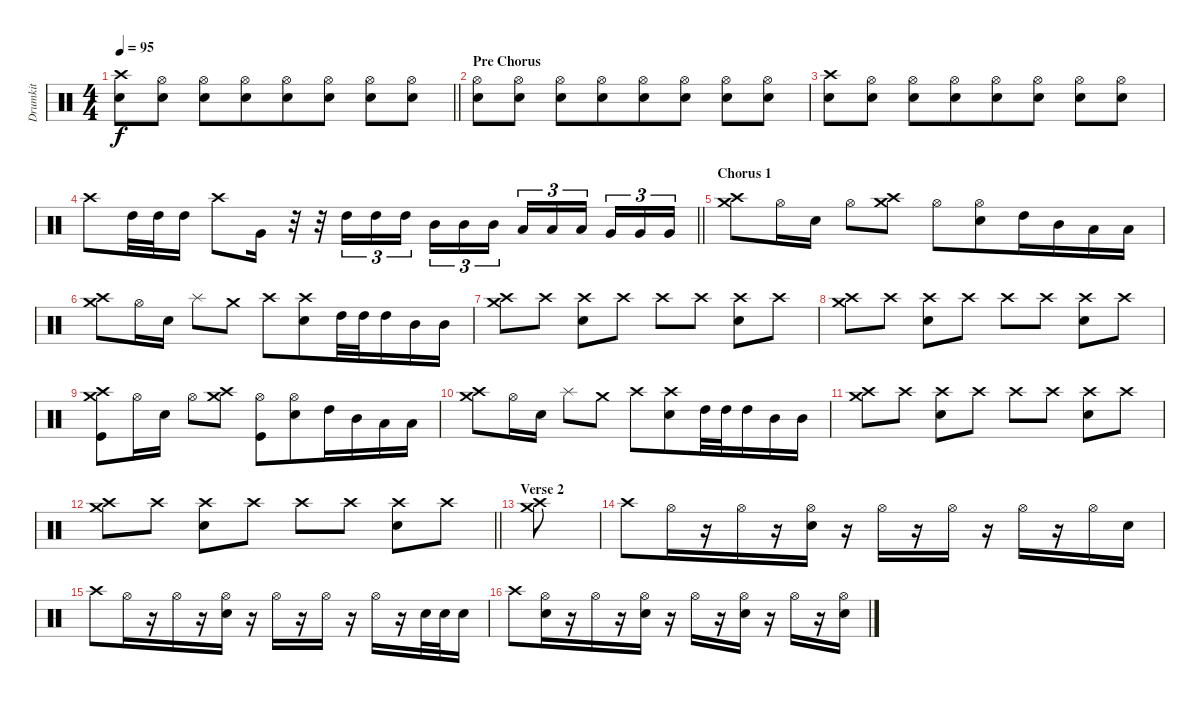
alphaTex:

\track ("Drumkit" "Drumkit") {instrument percussion}
\staff {score}
\articulation defaults
\ts (4 4)
\tempo 95
\clef neutral
\barLineRight lightlight
\ks c
("Crash high (hit)" "Electric Snare (hit)").8{dy f} ("Hi-Hat (open)" "Electric Snare (hit)").8 ("Hi-Hat (open)" "Electric Snare (hit)").8{beam merge} ("Hi-Hat (open)" "Electric Snare (hit)").8{beam merge} ("Hi-Hat (open)" "Electric Snare (hit)").8 ("Hi-Hat (open)" "Electric Snare (hit)").8 ("Hi-Hat (open)" "Electric Snare (hit)").8 ("Hi-Hat (open)" "Electric Snare (hit)").8 |
\section ("" "Pre Chorus")
("Hi-Hat (open)" "Electric Snare (hit)").8 ("Hi-Hat (open)" "Electric Snare (hit)").8 ("Hi-Hat (open)" "Electric Snare (hit)").8{beam merge} ("Hi-Hat (open)" "Electric Snare (hit)").8{beam merge} ("Hi-Hat (open)" "Electric Snare (hit)").8 ("Hi-Hat (open)" "Electric Snare (hit)").8 ("Hi-Hat (open)" "Electric Snare (hit)").8 ("Hi-Hat (open)" "Electric Snare (hit)").8 |
("Crash high (hit)" "Electric Snare (hit)").8 ("Hi-Hat (open)" "Electric Snare (hit)").8 ("Hi-Hat (open)" "Electric Snare (hit)").8{beam merge} ("Hi-Hat (open)" "Electric Snare (hit)").8{beam merge} ("Hi-Hat (open)" "Electric Snare (hit)").8 ("Hi-Hat (open)" "Electric Snare (hit)").8 ("Hi-Hat (open)" "Electric Snare (hit)").8 ("Hi-Hat (open)" "Electric Snare (hit)").8 |
\barLineRight lightlight "Crash high (hit)".8 "High Tom (hit)".32 "High Tom (hit)".32 "High Tom (hit)".16 "Crash high (hit)".8 "Very Low Tom (hit)".16
r.32{beam merge} r.32 "High Tom (hit)".16{tu (3 2)} "High Tom (hit)".16{tu (3 2)} "High Tom (hit)".16{tu (3 2) beam splitsecondary} "Mid Tom (hit)".16{tu (3 2)} "Mid Tom (hit)".16{tu (3 2) beam merge} "Mid Tom (hit)".16{tu (3 2)} "Low Tom (hit)".16{tu (3 2)} "Low Tom (hit)".16{tu (3 2)} "Low Tom (hit)".16{tu (3 2) beam splitsecondary} "Very Low Tom (hit)".16{tu (3 2)} "Very Low Tom (hit)".16{tu (3 2) beam merge} "Very Low Tom (hit)".16{tu (3 2)} |
\section ("" "Chorus 1")
("Crash medium (hit)" "Crash high (hit)").8 "Hi-Hat (open)".16 "Electric Snare (hit)".16 "Hi-Hat (open)".8 ("Crash medium (hit)" "Crash high (hit)").8 "Hi-Hat (open)".8 ("Hi-Hat (open)" "Electric Snare (hit)").8{beam merge} "High Tom (hit)".16 "Mid Tom (hit)".16 "Low Tom (hit)".16 "Low Tom (hit)".16 |
("Crash medium (hit)" "Crash high (hit)").8 "Hi-Hat (open)".16 "Electric Snare (hit)".16 "Splash (hit)".8 "Crash medium (hit)".8 "Crash high (hit)".8 ("Crash high (hit)" "Electric Snare (hit)").8{beam merge} "High Tom (hit)".32 "High Tom (hit)".32 "High Tom (hit)".16 "Mid Tom (hit)".16 "Mid Tom (hit)".16 |
("Crash medium (hit)" "Crash high (hit)").8 "Crash high (hit)".8 ("Crash high (hit)" "Electric Snare (hit)").8 "Crash high (hit)".8 "Crash high (hit)".8 "Crash high (hit)".8 ("Crash high (hit)" "Electric Snare (hit)").8{beam merge} "Crash high (hit)".8 |
("Crash medium (hit)" "Crash high (hit)").8{beam merge} "Crash high (hit)".8 ("Crash high (hit)" "Electric Snare (hit)").8 "Crash high (hit)".8 "Crash high (hit)".8{beam merge} "Crash high (hit)".8 ("Crash high (hit)" "Electric Snare (hit)").8 "Crash high (hit)".8 |
("Crash medium (hit)" "Crash high (hit)" "Kick (hit)").8 "Hi-Hat (open)".16 "Electric Snare (hit)".16 "Hi-Hat (open)".8 ("Crash medium (hit)" "Crash high (hit)").8 ("Hi-Hat (open)" "Kick (hit)").8 ("Hi-Hat (open)" "Electric Snare (hit)").8{beam merge} "High Tom (hit)".16 "Mid Tom (hit)".16 "Low Tom (hit)".16 "Low Tom (hit)".16 |
("Crash medium (hit)" "Crash high (hit)").8 "Hi-Hat (open)".16 "Electric Snare (hit)".16 "Splash (hit)".8 "Crash medium (hit)".8 "Crash high (hit)".8 ("Crash high (hit)" "Electric Snare (hit)").8{beam merge} "High Tom (hit)".32 "High Tom (hit)".32 "High Tom (hit)".16 "Mid Tom (hit)".16 "Mid Tom (hit)".16 |
("Crash medium (hit)" "Crash high (hit)").8 "Crash high (hit)".8 ("Crash high (hit)" "Electric Snare (hit)").8 "Crash high (hit)".8 "Crash high (hit)".8 "Crash high (hit)".8 ("Crash high (hit)" "Electric Snare (hit)").8{beam merge} "Crash high (hit)".8 |
\barLineRight lightlight
("Crash medium (hit)" "Crash high (hit)").8{beam merge} "Crash high (hit)".8 ("Crash high (hit)" "Electric Snare (hit)").8 "Crash high (hit)".8 "Crash high (hit)".8{beam merge} "Crash high (hit)".8 ("Crash high (hit)" "Electric Snare (hit)").8 "Crash high (hit)".8 |
\section ("" "Verse 2")
("Crash medium (hit)" "Crash high (hit)").8 |
"Crash high (hit)".8 "Hi-Hat (open)".16{beam merge} r.16{beam merge} "Hi-Hat (open)".16 r.16{beam merge} ("Hi-Hat (open)" "Electric Snare (hit)").16 r.16 "Hi-Hat (open)".16 r.16 "Hi-Hat (open)".16 r.16 "Hi-Hat (open)".16{beam merge} r.16 "Hi-Hat (open)".16 "Electric Snare (hit)".16 |
"Crash high (hit)".8 "Hi-Hat (open)".16{beam merge} r.16{beam merge} "Hi-Hat (open)".16 r.16{beam merge} ("Hi-Hat (open)" "Electric Snare (hit)").16 r.16 "Hi-Hat (open)".16 r.16 "Hi-Hat (open)".16 r.16 "Hi-Hat (open)".16{beam merge} r.16 "Electric Snare (hit)".32 "Electric Snare (hit)".32 "Electric Snare (hit)".16 |
"Crash high (hit)".8 ("Hi-Hat (open)" "Electric Snare (hit)").16{beam merge} r.16{beam merge} "Hi-Hat (open)".16 r.16{beam merge} ("Hi-Hat (open)" "Electric Snare (hit)").16 r.16 "Hi-Hat (open)".16 r.16 ("Hi-Hat (open)" "Electric Snare (hit)").16 r.16 "Hi-Hat (open)".16{beam merge} r.16 ("Hi-Hat (open)" "Electric Snare (hit)").16
